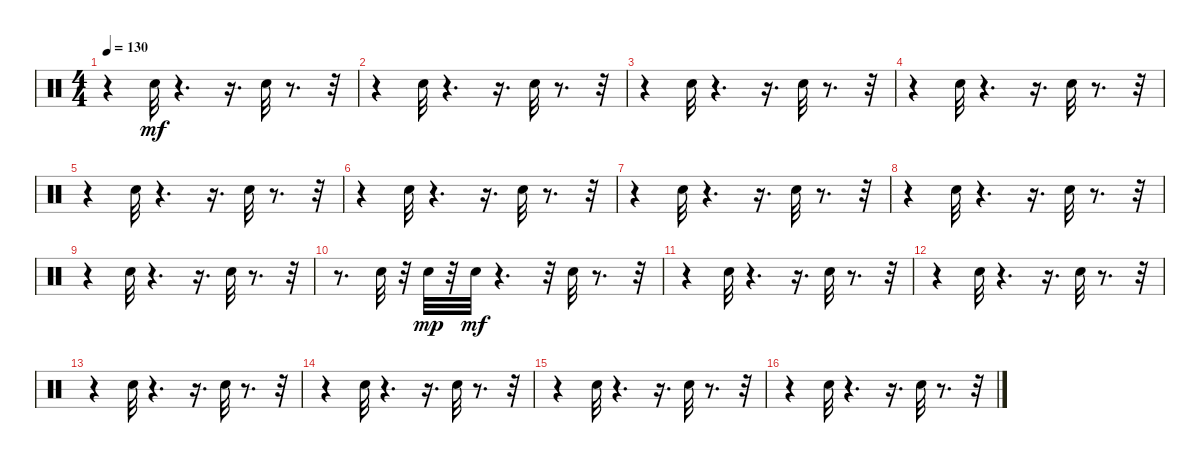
\track "" {instrument percussion}
\staff {score}
\articulation defaults
\ts (4 4)
\tempo 130
\clef neutral
\ks c
r.4{dy mf} "Electric Snare (hit)".32 r.4{d} r.16{d} "Electric Snare (hit)".32 r.8{d} r.32 |
r.4 "Electric Snare (hit)".32 r.4{d} r.16{d} "Electric Snare (hit)".32 r.8{d} r.32 |
r.4 "Electric Snare (hit)".32 r.4{d} r.16{d} "Electric Snare (hit)".32 r.8{d} r.32 |
r.4 "Electric Snare (hit)".32 r.4{d} r.16{d} "Electric Snare (hit)".32 r.8{d} r.32 |
r.4 "Electric Snare (hit)".32 r.4{d} r.16{d} "Electric Snare (hit)".32 r.8{d} r.32 |
r.4 "Electric Snare (hit)".32 r.4{d} r.16{d} "Electric Snare (hit)".32 r.8{d} r.32 |
r.4 "Electric Snare (hit)".32 r.4{d} r.16{d} "Electric Snare (hit)".32 r.8{d} r.32 |
r.4 "Electric Snare (hit)".32 r.4{d} r.16{d} "Electric Snare (hit)".32 r.8{d} r.32 |
r.4 "Electric Snare (hit)".32 r.4{d} r.16{d} "Electric Snare (hit)".32 r.8{d} r.32 |
r.8{d} "Electric Snare (hit)".32 r.32 "Electric Snare (hit)".32{dy mp} r.32 "Electric Snare (hit)".32{dy mf} r.4{d} r.32 "Electric Snare (hit)".32 r.8{d} r.32 |
r.4 "Electric Snare (hit)".32 r.4{d} r.16{d} "Electric Snare (hit)".32 r.8{d} r.32 |
r.4 "Electric Snare (hit)".32 r.4{d} r.16{d} "Electric Snare (hit)".32 r.8{d} r.32 |
r.4 "Electric Snare (hit)".32 r.4{d} r.16{d} "Electric Snare (hit)".32 r.8{d} r.32 |
r.4 "Electric Snare (hit)".32 r.4{d} r.16{d} "Electric Snare (hit)".32 r.8{d} r.32 |
r.4 "Electric Snare (hit)".32 r.4{d} r.16{d} "Electric Snare (hit)".32 r.8{d} r.32 |
r.4 "Electric Snare (hit)".32 r.4{d} r.16{d} "Electric Snare (hit)".32 r.8{d} r.32
